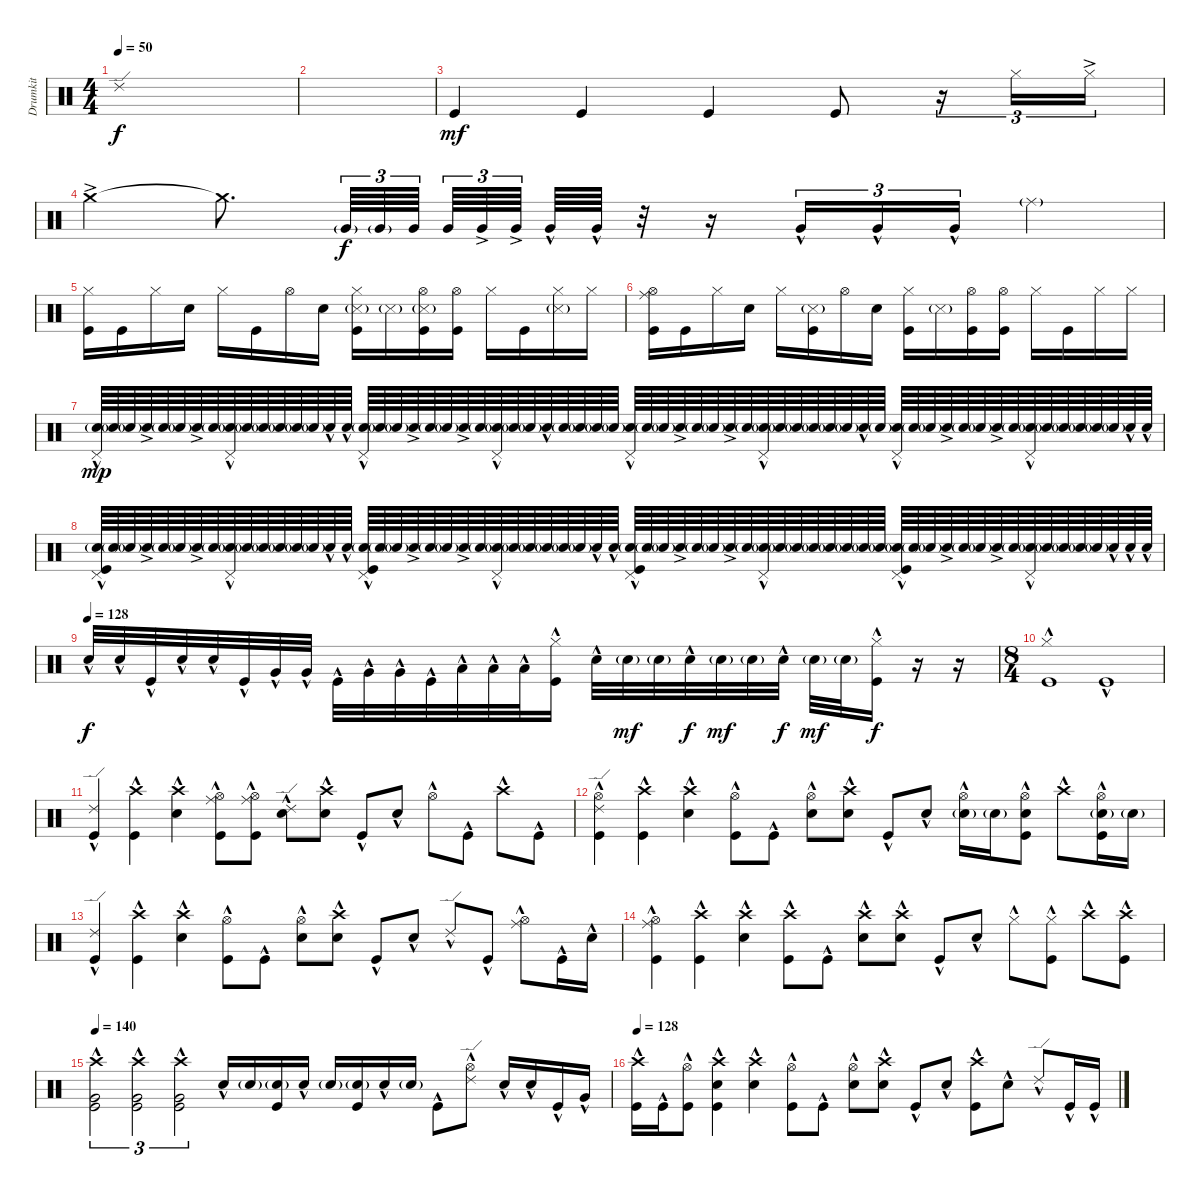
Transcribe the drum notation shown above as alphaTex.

\track ("Drumkit" "Drumkit") {instrument percussion}
\staff {score}
\articulation defaults
\ts (4 4)
\tempo 50
\clef neutral
\ks c "Ride (edge) 2"{t}.1{dy f}
|
|
"Kick (hit)".4{dy mf} "Kick (hit)".4 "Kick (hit)".4 "Kick (hit)".8 r.16{tu (3 2)} "Hi-Hat (closed)".16{tu (3 2)} "Hi-Hat (closed)"{ac}.16{tu (3 2)} |
"Crash medium (hit)"{ac}.4 "Crash medium (hit)"{t}.8{d} "Very Low Tom (hit)"{g}.64{tu (3 2) dy f} "Very Low Tom (hit)"{g}.64{tu (3 2)} "Very Low Tom (hit)".64{tu (3 2)} "Very Low Tom (hit)".64{tu (3 2)} "Very Low Tom (hit)"{ac}.64{tu (3 2)} "Very Low Tom (hit)"{ac}.64{tu (3 2)} "Very Low Tom (hit)"{hac}.64 "Very Low Tom (hit)"{hac}.64 r.32 r.16 "Very Low Tom (hit)"{hac}.16{tu (3 2)} "Very Low Tom (hit)"{hac}.16{tu (3 2)} "Very Low Tom (hit)"{hac}.16{tu (3 2)} "Ride (middle)"{g}.4 |
("Kick (hit)" "Hi-Hat (closed)").16 "Kick (hit)".16 "Hi-Hat (closed)".16 "Snare (hit) 2".16 "Hi-Hat (closed)".16 "Kick (hit)".16 "Hi-Hat (open)".16 "Snare (hit) 2".16 ("Kick (hit)" "Hi-Hat (closed)" "Snare (side stick) 3"{g}).16 "Snare (side stick) 3"{g}.16 ("Kick (hit)" "Hi-Hat (open)" "Snare (side stick) 3"{g}).16 ("Kick (hit)" "Hi-Hat (open)").16 "Hi-Hat (closed)".16 "Kick (hit)".16 ("Hi-Hat (closed)" "Snare (side stick) 3"{g}).16 "Hi-Hat (closed)".16 |
("Kick (hit)" "Hi-Hat (open)" "Ride (middle)").16 "Kick (hit)".16 "Hi-Hat (closed)".16 "Snare (hit) 2".16 "Hi-Hat (closed)".16 ("Kick (hit)" "Snare (side stick) 3"{g}).16 "Hi-Hat (open)".16 "Snare (hit) 2".16 ("Kick (hit)" "Hi-Hat (closed)").16 "Snare (side stick) 3"{g}.16 ("Kick (hit)" "Hi-Hat (open)").16 ("Kick (hit)" "Hi-Hat (open)").16 "Hi-Hat (closed)".16 "Kick (hit)".16 "Hi-Hat (closed)".16 "Hi-Hat (closed)".16 |
("Snare (hit) 2"{g} "Pedal Hi-Hat (hit)"{hac}).64{dy mp} "Snare (hit) 2"{g}.64 "Snare (hit) 2"{g}.64 "Snare (hit) 2"{ac}.64 "Snare (hit) 2"{g}.64 "Snare (hit) 2"{g}.64 "Snare (hit) 2"{ac}.64 "Snare (hit) 2"{g}.64 ("Snare (hit) 2"{g} "Pedal Hi-Hat (hit)"{hac}).64 "Snare (hit) 2"{g}.64 "Snare (hit) 2"{g}.64 "Snare (hit) 2"{g}.64 "Snare (hit) 2"{g}.64 "Snare (hit) 2"{g}.64 "Snare (hit) 2"{hac}.64 "Snare (hit) 2"{hac}.64 ("Snare (hit) 2"{g} "Pedal Hi-Hat (hit)"{hac}).64 "Snare (hit) 2"{g}.64 "Snare (hit) 2"{g}.64 "Snare (hit) 2"{ac}.64 "Snare (hit) 2"{g}.64 "Snare (hit) 2"{g}.64 "Snare (hit) 2"{ac}.64 "Snare (hit) 2"{g}.64 ("Snare (hit) 2"{g} "Pedal Hi-Hat (hit)"{hac}).64 "Snare (hit) 2"{g}.64 "Snare (hit) 2"{g}.64 "Snare (hit) 2"{hac}.64 "Snare (hit) 2"{g}.64 "Snare (hit) 2"{g}.64 "Snare (hit) 2"{g}.64 "Snare (hit) 2"{g}.64 ("Snare (hit) 2"{hac} "Pedal Hi-Hat (hit)"{hac}).64 "Snare (hit) 2"{g}.64 "Snare (hit) 2"{g}.64 "Snare (hit) 2"{ac}.64 "Snare (hit) 2"{g}.64 "Snare (hit) 2"{g}.64 "Snare (hit) 2"{ac}.64 "Snare (hit) 2"{g}.64 ("Snare (hit) 2"{g} "Pedal Hi-Hat (hit)"{hac}).64 "Snare (hit) 2"{g}.64 "Snare (hit) 2"{g}.64 "Snare (hit) 2"{g}.64 "Snare (hit) 2"{g}.64 "Snare (hit) 2"{g}.64 "Snare (hit) 2"{hac}.64 "Snare (hit) 2"{g}.64 ("Snare (hit) 2" "Pedal Hi-Hat (hit)"{hac}).64 "Snare (hit) 2"{g}.64 "Snare (hit) 2"{g}.64 "Snare (hit) 2"{ac}.64 "Snare (hit) 2"{g}.64 "Snare (hit) 2"{g}.64 "Snare (hit) 2"{ac}.64 "Snare (hit) 2"{g}.64 ("Snare (hit) 2"{g} "Pedal Hi-Hat (hit)"{hac}).64 "Snare (hit) 2"{g}.64 "Snare (hit) 2"{g}.64 "Snare (hit) 2"{g}.64 "Snare (hit) 2"{g}.64 "Snare (hit) 2"{g}.64 "Snare (hit) 2"{hac}.64 "Snare (hit) 2"{hac}.64 |
("Snare (hit) 2"{g} "Pedal Hi-Hat (hit)"{hac} "Kick (hit)"{hac}).64 "Snare (hit) 2"{g}.64 "Snare (hit) 2"{g}.64 "Snare (hit) 2"{ac}.64 "Snare (hit) 2"{g}.64 "Snare (hit) 2"{g}.64 "Snare (hit) 2"{ac}.64 "Snare (hit) 2"{g}.64 ("Snare (hit) 2"{g} "Pedal Hi-Hat (hit)"{hac}).64 "Snare (hit) 2"{g}.64 "Snare (hit) 2"{g}.64 "Snare (hit) 2"{g}.64 "Snare (hit) 2"{g}.64 "Snare (hit) 2"{g}.64 "Snare (hit) 2"{hac}.64 "Snare (hit) 2"{hac}.64 ("Snare (hit) 2"{g} "Pedal Hi-Hat (hit)"{hac} "Kick (hit)"{hac}).64 "Snare (hit) 2"{g}.64 "Snare (hit) 2"{g}.64 "Snare (hit) 2"{ac}.64 "Snare (hit) 2"{g}.64 "Snare (hit) 2"{g}.64 "Snare (hit) 2"{ac}.64 "Snare (hit) 2"{g}.64 ("Snare (hit) 2"{g} "Pedal Hi-Hat (hit)"{hac}).64 "Snare (hit) 2"{g}.64 "Snare (hit) 2"{g}.64 "Snare (hit) 2"{g}.64 "Snare (hit) 2"{g}.64 "Snare (hit) 2"{g}.64 "Snare (hit) 2"{hac}.64 "Snare (hit) 2"{hac}.64 ("Snare (hit) 2"{g} "Pedal Hi-Hat (hit)"{hac} "Kick (hit)"{hac}).64 "Snare (hit) 2"{g}.64 "Snare (hit) 2"{g}.64 "Snare (hit) 2"{ac}.64 "Snare (hit) 2"{g}.64 "Snare (hit) 2"{g}.64 "Snare (hit) 2"{ac}.64 "Snare (hit) 2"{g}.64 ("Snare (hit) 2"{g} "Pedal Hi-Hat (hit)"{hac}).64 "Snare (hit) 2"{g}.64 "Snare (hit) 2"{g}.64 "Snare (hit) 2"{g}.64 "Snare (hit) 2"{g}.64 "Snare (hit) 2"{g}.64 "Snare (hit) 2"{g}.64 "Snare (hit) 2"{g}.64 ("Snare (hit) 2"{g} "Pedal Hi-Hat (hit)"{hac} "Kick (hit)"{hac}).64 "Snare (hit) 2"{g}.64 "Snare (hit) 2"{g}.64 "Snare (hit) 2"{ac}.64 "Snare (hit) 2"{g}.64 "Snare (hit) 2"{g}.64 "Snare (hit) 2"{ac}.64 "Snare (hit) 2"{g}.64 ("Snare (hit) 2"{g} "Pedal Hi-Hat (hit)"{hac}).64 "Snare (hit) 2"{g}.64 "Snare (hit) 2"{g}.64 "Snare (hit) 2"{g}.64 "Snare (hit) 2"{g}.64 "Snare (hit) 2"{hac}.64 "Snare (hit) 2"{hac}.64 "Snare (hit) 2"{hac}.64 |
\tempo (128)
"Snare (hit) 2"{hac}.32{dy f} "Snare (hit) 2"{hac}.32 "Kick (hit)"{hac}.32 "Snare (hit) 2"{hac}.32 "Snare (hit) 2"{hac}.32 "Kick (hit)"{hac}.32 "Very Low Tom (hit)"{hac}.32 "Very Low Tom (hit)"{hac}.32 "Kick (hit)"{hac}.32 "Very Low Tom (hit)"{hac}.32 "Very Low Tom (hit)"{hac}.32 "Kick (hit)"{hac}.32 "Low Tom (hit)"{hac}.32 "Low Tom (hit)"{hac}.32 "Low Tom (hit)"{hac}.32 ("Hi-Hat (closed)"{hac} "Kick (hit)"{hac}).16 "Snare (hit) 2"{hac}.32 "Snare (hit) 2"{g}.32{dy mf} "Snare (hit) 2"{g}.32 "Snare (hit) 2"{hac}.32{dy f} "Snare (hit) 2"{g}.32{dy mf} "Snare (hit) 2"{g}.32 "Snare (hit) 2"{hac}.32{dy f} "Snare (hit) 2"{g}.32{dy mf} "Snare (hit) 2"{g}.32 ("Hi-Hat (closed)"{hac} "Kick (hit)"{hac}).16{dy f} r.16 r.16 |
\ts (8 4)
("Hi-Hat (closed)"{hac} "Kick (hit)"{hac}).1 "Kick (hit)"{hac}.1 |
("Kick (hit)"{hac} "Ride (edge) 2"{hac}).4 ("Kick (hit)"{hac} "Crash high (hit)"{hac}).4 ("Crash high (hit)"{hac} "Snare (hit) 2"{hac}).4 ("Kick (hit)"{hac} "Ride (middle)"{hac} "Hi-Hat (open)"{hac}).8 ("Kick (hit)"{hac} "Ride (middle)"{hac} "Hi-Hat (open)"{hac}).8 ("Snare (hit) 2"{hac} "Ride (edge) 2"{hac}).8 ("Snare (hit) 2"{hac} "Crash high (hit)"{hac}).8 "Kick (hit)"{hac}.8 "Snare (hit) 2"{hac}.8 "Hi-Hat (open)"{hac}.8 "Kick (hit)"{hac}.8 "Crash high (hit)"{hac}.8 "Kick (hit)"{hac}.8 |
("Kick (hit)"{hac} "Ride (edge) 2"{hac} "Hi-Hat (open)"{hac}).4 ("Kick (hit)"{hac} "Crash high (hit)"{hac}).4 ("Crash high (hit)"{hac} "Snare (hit) 2"{hac}).4 ("Kick (hit)"{hac} "Hi-Hat (open)"{hac}).8 "Kick (hit)"{hac}.8 ("Snare (hit) 2"{hac} "Hi-Hat (open)"{hac}).8 ("Snare (hit) 2"{hac} "Crash high (hit)"{hac}).8 "Kick (hit)"{hac}.8 "Snare (hit) 2"{hac}.8 ("Snare (hit) 2"{g} "Hi-Hat (open)"{hac}).16 "Snare (hit) 2"{g}.16 ("Kick (hit)"{hac} "Snare (hit) 2"{hac} "Hi-Hat (open)"{hac}).8 "Crash high (hit)"{hac}.8 ("Kick (hit)"{hac} "Snare (hit) 2"{g} "Hi-Hat (open)"{hac}).16 "Snare (hit) 2"{g}.16 |
("Kick (hit)"{hac} "Ride (edge) 2"{hac}).4 ("Kick (hit)"{hac} "Crash high (hit)"{hac}).4 ("Crash high (hit)"{hac} "Snare (hit) 2"{hac}).4 ("Kick (hit)"{hac} "Hi-Hat (open)"{hac}).8 "Kick (hit)"{hac}.8 ("Snare (hit) 2"{hac} "Hi-Hat (open)"{hac}).8 ("Snare (hit) 2"{hac} "Crash high (hit)"{hac}).8 "Kick (hit)"{hac}.8 "Snare (hit) 2"{hac}.8 "Ride (edge) 2"{hac}.8 "Kick (hit)"{hac}.8 ("Ride (middle)"{hac} "Hi-Hat (open)"{hac}).8 "Kick (hit)"{hac}.16 "Snare (hit) 2"{hac}.16 |
("Kick (hit)"{hac} "Ride (middle)"{hac} "Hi-Hat (open)"{hac}).4 ("Kick (hit)"{hac} "Crash high (hit)"{hac}).4 ("Crash high (hit)"{hac} "Snare (hit) 2"{hac}).4 ("Kick (hit)"{hac} "Crash high (hit)"{hac}).8 "Kick (hit)"{hac}.8 ("Snare (hit) 2"{hac} "Crash high (hit)"{hac}).8 ("Snare (hit) 2"{hac} "Crash high (hit)"{hac}).8 "Kick (hit)"{hac}.8 "Snare (hit) 2"{hac}.8 "Hi-Hat (closed)"{hac}.8 ("Kick (hit)"{hac} "Hi-Hat (closed)"{hac}).8 "Crash high (hit)"{hac}.8 ("Kick (hit)"{hac} "Crash high (hit)"{hac}).8 |
\tempo 140
("Kick (hit)"{hac} "Very Low Tom (hit)"{hac} "Crash high (hit)"{hac}).2{tu (3 2)} ("Kick (hit)"{hac} "Very Low Tom (hit)"{hac} "Crash high (hit)"{hac}).2{tu (3 2)} ("Kick (hit)"{hac} "Very Low Tom (hit)"{hac} "Crash high (hit)"{hac}).2{tu (3 2)} "Snare (hit) 2"{hac}.16 "Snare (hit) 2"{g}.16 ("Kick (hit)" "Snare (hit) 2"{g}).16 "Snare (hit) 2"{hac}.16 "Snare (hit) 2"{g}.16 ("Kick (hit)" "Snare (hit) 2"{g}).16 "Snare (hit) 2"{hac}.16 "Snare (hit) 2"{g}.16 "Kick (hit)"{hac}.8 ("Hi-Hat (open)"{hac} "Ride (edge) 2"{hac}).8 "Snare (hit) 2"{hac}.16 "Snare (hit) 2"{hac}.16 "Kick (hit)"{hac}.16 "Very Low Tom (hit)"{hac}.16 |
\tempo 128
("Kick (hit)"{hac} "Crash high (hit)"{hac}).16 "Kick (hit)"{hac}.16 ("Kick (hit)"{hac} "Hi-Hat (open)"{hac}).8 ("Kick (hit)"{hac} "Crash high (hit)"{hac} "Snare (hit) 2").4 ("Crash high (hit)"{hac} "Snare (hit) 2"{hac}).4 ("Kick (hit)"{hac} "Hi-Hat (open)"{hac}).8 "Kick (hit)"{hac}.8 ("Snare (hit) 2"{hac} "Hi-Hat (open)"{hac}).8 ("Snare (hit) 2"{hac} "Crash high (hit)"{hac}).8 "Kick (hit)"{hac}.8 "Snare (hit) 2"{hac}.8 ("Kick (hit)"{hac} "Crash high (hit)"{hac}).8 "Snare (hit) 2"{hac}.8 "Ride (edge) 2"{hac}.8 "Kick (hit)"{hac}.16 "Kick (hit)"{hac}.16
